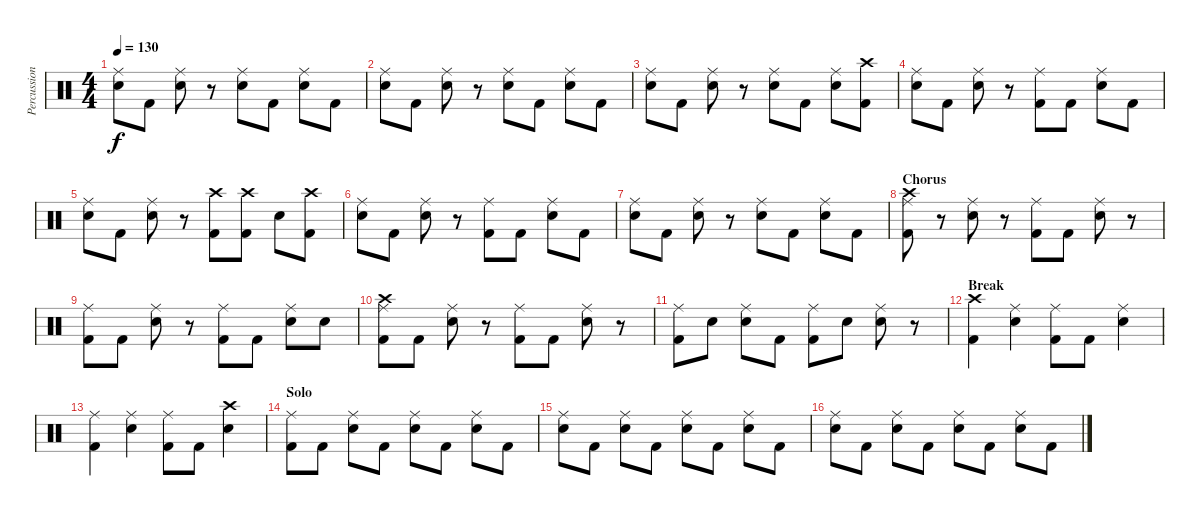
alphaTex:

\track ("Percussion" "Percussion") {instrument percussion}
\staff {score}
\articulation defaults
\ts (4 4)
\tempo 130
\clef neutral
\ks c
("Ride (middle)" "Electric Snare (hit)").8{dy f} "Kick (hit) 2".8 ("Ride (middle)" "Electric Snare (hit)").8 r.8 ("Ride (middle)" "Electric Snare (hit)").8 "Kick (hit) 2".8 ("Ride (middle)" "Electric Snare (hit)").8 "Kick (hit) 2".8 |
("Ride (middle)" "Electric Snare (hit)").8 "Kick (hit) 2".8 ("Ride (middle)" "Electric Snare (hit)").8 r.8 ("Ride (middle)" "Electric Snare (hit)").8 "Kick (hit) 2".8 ("Ride (middle)" "Electric Snare (hit)").8 "Kick (hit) 2".8 |
("Ride (middle)" "Electric Snare (hit)").8 "Kick (hit) 2".8 ("Ride (middle)" "Electric Snare (hit)").8 r.8 ("Ride (middle)" "Electric Snare (hit)").8 "Kick (hit) 2".8 ("Ride (middle)" "Electric Snare (hit)").8 ("Crash high (hit)" "Kick (hit) 2").8 |
("Ride (middle)" "Electric Snare (hit)").8 "Kick (hit) 2".8 ("Ride (middle)" "Electric Snare (hit)").8 r.8 ("Ride (middle)" "Kick (hit) 2").8 "Kick (hit) 2".8 ("Ride (middle)" "Electric Snare (hit)").8 "Kick (hit) 2".8 |
("Ride (middle)" "Electric Snare (hit)").8 "Kick (hit) 2".8 ("Ride (middle)" "Electric Snare (hit)").8 r.8 ("Crash high (hit)" "Kick (hit) 2").8 ("Crash high (hit)" "Kick (hit) 2").8 "Electric Snare (hit)".8 ("Crash high (hit)" "Kick (hit) 2").8 |
("Ride (middle)" "Electric Snare (hit)").8 "Kick (hit) 2".8 ("Ride (middle)" "Electric Snare (hit)").8 r.8 ("Ride (middle)" "Kick (hit) 2").8 "Kick (hit) 2".8 ("Ride (middle)" "Electric Snare (hit)").8 "Kick (hit) 2".8 |
("Ride (middle)" "Electric Snare (hit)").8 "Kick (hit) 2".8 ("Ride (middle)" "Electric Snare (hit)").8 r.8 ("Ride (middle)" "Electric Snare (hit)").8 "Kick (hit) 2".8 ("Ride (middle)" "Electric Snare (hit)").8 "Kick (hit) 2".8 |
\section ("" "Chorus")
("Ride (middle)" "Crash high (hit)" "Kick (hit) 2").8 r.8 ("Ride (middle)" "Electric Snare (hit)").8 r.8 ("Ride (middle)" "Kick (hit) 2").8 "Kick (hit) 2".8 ("Ride (middle)" "Electric Snare (hit)").8 r.8 |
("Ride (middle)" "Kick (hit) 2").8 "Kick (hit) 2".8 ("Ride (middle)" "Electric Snare (hit)").8 r.8 ("Ride (middle)" "Kick (hit) 2").8 "Kick (hit) 2".8 ("Ride (middle)" "Electric Snare (hit)").8 "Electric Snare (hit)".8 |
("Ride (middle)" "Crash high (hit)" "Kick (hit) 2").8 "Kick (hit) 2".8 ("Ride (middle)" "Electric Snare (hit)").8 r.8 ("Ride (middle)" "Kick (hit) 2").8 "Kick (hit) 2".8 ("Ride (middle)" "Electric Snare (hit)").8 r.8 |
("Ride (middle)" "Kick (hit) 2").8 "Electric Snare (hit)".8 ("Ride (middle)" "Electric Snare (hit)").8 "Kick (hit) 2".8 ("Ride (middle)" "Kick (hit) 2").8 "Electric Snare (hit)".8 ("Ride (middle)" "Electric Snare (hit)").8 r.8 |
\section ("" "Break")
("Crash high (hit)" "Kick (hit) 2").4 ("Ride (middle)" "Electric Snare (hit)").4 ("Ride (middle)" "Kick (hit) 2").8 "Kick (hit) 2".8 ("Ride (middle)" "Electric Snare (hit)").4 |
("Ride (middle)" "Kick (hit) 2").4 ("Ride (middle)" "Electric Snare (hit)").4 ("Ride (middle)" "Kick (hit) 2").8 "Kick (hit) 2".8 ("Crash high (hit)" "Electric Snare (hit)").4 |
\section ("" "Solo")
("Ride (middle)" "Kick (hit) 2").8 "Kick (hit) 2".8 ("Ride (middle)" "Electric Snare (hit)").8 "Kick (hit) 2".8 ("Ride (middle)" "Electric Snare (hit)").8 "Kick (hit) 2".8 ("Ride (middle)" "Electric Snare (hit)").8 "Kick (hit) 2".8 |
("Ride (middle)" "Electric Snare (hit)").8 "Kick (hit) 2".8 ("Ride (middle)" "Electric Snare (hit)").8 "Kick (hit) 2".8 ("Ride (middle)" "Electric Snare (hit)").8 "Kick (hit) 2".8 ("Ride (middle)" "Electric Snare (hit)").8 "Kick (hit) 2".8 |
("Ride (middle)" "Electric Snare (hit)").8 "Kick (hit) 2".8 ("Ride (middle)" "Electric Snare (hit)").8 "Kick (hit) 2".8 ("Ride (middle)" "Electric Snare (hit)").8 "Kick (hit) 2".8 ("Ride (middle)" "Electric Snare (hit)").8 "Kick (hit) 2".8
